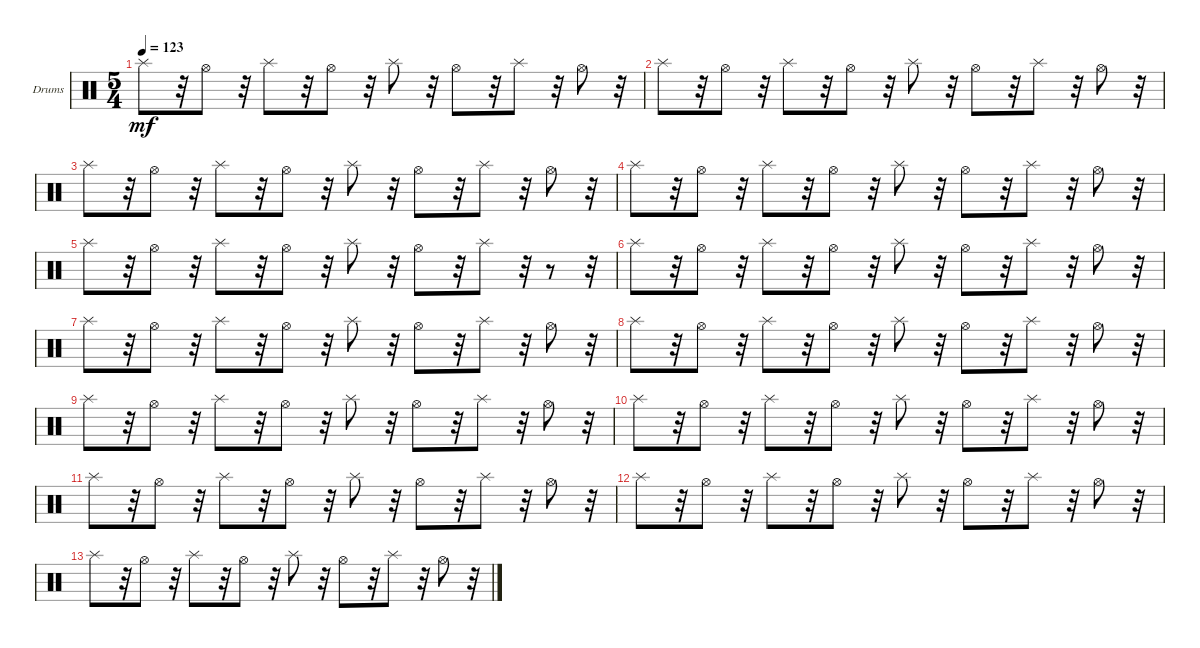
\defaultSystemsLayout 4
\bracketExtendMode groupsimilarinstruments
\firstSystemTrackNameOrientation horizontal
\otherSystemsTrackNameOrientation horizontal
\track ("Drumkit" "Drums") {instrument percussion}
\staff {score}
\articulation defaults
\ts (5 4)
\tempo 123
\clef neutral
\ks c "Splash (hit)".8{dy mf}
r.32 "Hi-Hat (open)".8 r.32 "Splash (hit)".8 r.32 "Hi-Hat (open)".8 r.32 "Splash (hit)".8 r.32 "Hi-Hat (open)".8 r.32 "Splash (hit)".8 r.32 "Hi-Hat (open)".8 r.32 |
"Splash (hit)".8 r.32 "Hi-Hat (open)".8 r.32 "Splash (hit)".8 r.32 "Hi-Hat (open)".8 r.32 "Splash (hit)".8 r.32 "Hi-Hat (open)".8 r.32 "Splash (hit)".8 r.32 "Hi-Hat (open)".8 r.32 |
"Splash (hit)".8 r.32 "Hi-Hat (open)".8 r.32 "Splash (hit)".8 r.32 "Hi-Hat (open)".8 r.32 "Splash (hit)".8 r.32 "Hi-Hat (open)".8 r.32 "Splash (hit)".8 r.32 "Hi-Hat (open)".8 r.32 |
"Splash (hit)".8 r.32 "Hi-Hat (open)".8 r.32 "Splash (hit)".8 r.32 "Hi-Hat (open)".8 r.32 "Splash (hit)".8 r.32 "Hi-Hat (open)".8 r.32 "Splash (hit)".8 r.32 "Hi-Hat (open)".8 r.32 |
"Splash (hit)".8 r.32 "Hi-Hat (open)".8 r.32 "Splash (hit)".8 r.32 "Hi-Hat (open)".8 r.32 "Splash (hit)".8 r.32 "Hi-Hat (open)".8 r.32 "Splash (hit)".8 r.32 r.8 r.32 |
"Splash (hit)".8 r.32 "Hi-Hat (open)".8 r.32 "Splash (hit)".8 r.32 "Hi-Hat (open)".8 r.32 "Splash (hit)".8 r.32 "Hi-Hat (open)".8 r.32 "Splash (hit)".8 r.32 "Hi-Hat (open)".8 r.32 |
"Splash (hit)".8 r.32 "Hi-Hat (open)".8 r.32 "Splash (hit)".8 r.32 "Hi-Hat (open)".8 r.32 "Splash (hit)".8 r.32 "Hi-Hat (open)".8 r.32 "Splash (hit)".8 r.32 "Hi-Hat (open)".8 r.32 |
"Splash (hit)".8 r.32 "Hi-Hat (open)".8 r.32 "Splash (hit)".8 r.32 "Hi-Hat (open)".8 r.32 "Splash (hit)".8 r.32 "Hi-Hat (open)".8 r.32 "Splash (hit)".8 r.32 "Hi-Hat (open)".8 r.32 |
"Splash (hit)".8 r.32 "Hi-Hat (open)".8 r.32 "Splash (hit)".8 r.32 "Hi-Hat (open)".8 r.32 "Splash (hit)".8 r.32 "Hi-Hat (open)".8 r.32 "Splash (hit)".8 r.32 "Hi-Hat (open)".8 r.32 |
"Splash (hit)".8 r.32 "Hi-Hat (open)".8 r.32 "Splash (hit)".8 r.32 "Hi-Hat (open)".8 r.32 "Splash (hit)".8 r.32 "Hi-Hat (open)".8 r.32 "Splash (hit)".8 r.32 "Hi-Hat (open)".8 r.32 |
"Splash (hit)".8 r.32 "Hi-Hat (open)".8 r.32 "Splash (hit)".8 r.32 "Hi-Hat (open)".8 r.32 "Splash (hit)".8 r.32 "Hi-Hat (open)".8 r.32 "Splash (hit)".8 r.32 "Hi-Hat (open)".8 r.32 |
"Splash (hit)".8 r.32 "Hi-Hat (open)".8 r.32 "Splash (hit)".8 r.32 "Hi-Hat (open)".8 r.32 "Splash (hit)".8 r.32 "Hi-Hat (open)".8 r.32 "Splash (hit)".8 r.32 "Hi-Hat (open)".8 r.32 |
"Splash (hit)".8 r.32 "Hi-Hat (open)".8 r.32 "Splash (hit)".8 r.32 "Hi-Hat (open)".8 r.32 "Splash (hit)".8 r.32 "Hi-Hat (open)".8 r.32 "Splash (hit)".8 r.32 "Hi-Hat (open)".8 r.32
